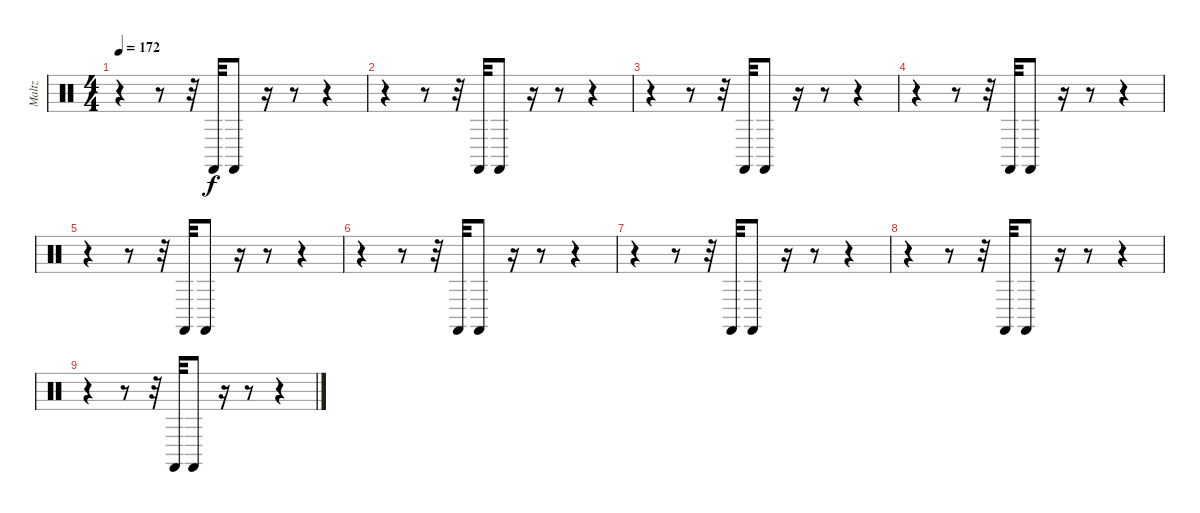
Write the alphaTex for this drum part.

\track ("Maltz" "Maltz") {instrument percussion}
\staff {score}
\articulation defaults
\ts (4 4)
\tempo 172
\clef neutral
\ks c
r.4{dy f} r.8 r.32 "Castanets (hit)".32 "Castanets (hit)".8 r.16 r.8 r.4 |
r.4 r.8 r.32 "Castanets (hit)".32 "Castanets (hit)".8 r.16 r.8 r.4 |
r.4 r.8 r.32 "Castanets (hit)".32 "Castanets (hit)".8 r.16 r.8 r.4 |
r.4 r.8 r.32 "Castanets (hit)".32 "Castanets (hit)".8 r.16 r.8 r.4 |
r.4 r.8 r.32 "Castanets (hit)".32 "Castanets (hit)".8 r.16 r.8 r.4 |
r.4 r.8 r.32 "Castanets (hit)".32 "Castanets (hit)".8 r.16 r.8 r.4 |
r.4 r.8 r.32 "Castanets (hit)".32 "Castanets (hit)".8 r.16 r.8 r.4 |
r.4 r.8 r.32 "Castanets (hit)".32 "Castanets (hit)".8 r.16 r.8 r.4 |
r.4 r.8 r.32 "Castanets (hit)".32 "Castanets (hit)".8 r.16 r.8 r.4
